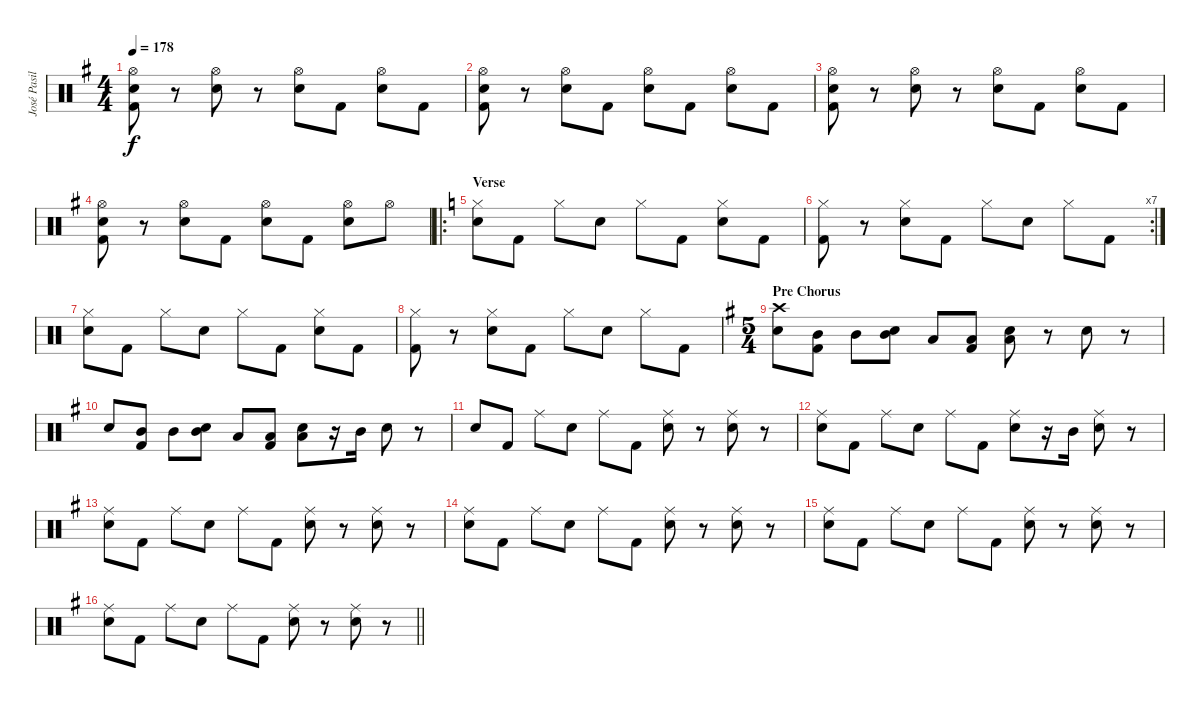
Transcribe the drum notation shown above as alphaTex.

\track ("José Pasillas [Drums]" "José Pasil") {instrument percussion}
\staff {score}
\articulation defaults
\ts (4 4)
\tempo 178
\clef neutral
\ks g
("Kick (hit) 2" "Electric Snare (hit)" "Hi-Hat (open)").8{dy f} r.8 ("Electric Snare (hit)" "Hi-Hat (open)").8 r.8 ("Electric Snare (hit)" "Hi-Hat (open)").8 "Kick (hit) 2".8 ("Electric Snare (hit)" "Hi-Hat (open)").8 "Kick (hit) 2".8 |
("Kick (hit) 2" "Electric Snare (hit)" "Hi-Hat (open)").8 r.8 ("Electric Snare (hit)" "Hi-Hat (open)").8 "Kick (hit) 2".8 ("Electric Snare (hit)" "Hi-Hat (open)").8 "Kick (hit) 2".8 ("Electric Snare (hit)" "Hi-Hat (open)").8 "Kick (hit) 2".8 |
("Kick (hit) 2" "Electric Snare (hit)" "Hi-Hat (open)").8 r.8 ("Electric Snare (hit)" "Hi-Hat (open)").8 r.8 ("Electric Snare (hit)" "Hi-Hat (open)").8 "Kick (hit) 2".8 ("Electric Snare (hit)" "Hi-Hat (open)").8 "Kick (hit) 2".8 |
("Kick (hit) 2" "Electric Snare (hit)" "Hi-Hat (open)").8 r.8 ("Electric Snare (hit)" "Hi-Hat (open)").8 "Kick (hit) 2".8 ("Electric Snare (hit)" "Hi-Hat (open)").8 "Kick (hit) 2".8 ("Electric Snare (hit)" "Hi-Hat (open)").8 "Hi-Hat (open)".8 |
\ro
\section ("" "Verse")
\ks c
("Electric Snare (hit)" "Hi-Hat (closed)").8 "Kick (hit) 2".8 "Hi-Hat (closed)".8 "Electric Snare (hit)".8 "Hi-Hat (closed)".8 "Kick (hit) 2".8 ("Electric Snare (hit)" "Hi-Hat (closed)").8 "Kick (hit) 2".8 |
\rc 7
("Kick (hit) 2" "Hi-Hat (closed)").8 r.8 ("Electric Snare (hit)" "Hi-Hat (closed)").8 "Kick (hit) 2".8 "Hi-Hat (closed)".8 "Electric Snare (hit)".8 "Hi-Hat (closed)".8 "Kick (hit) 2".8 |
("Electric Snare (hit)" "Hi-Hat (closed)").8 "Kick (hit) 2".8 "Hi-Hat (closed)".8 "Electric Snare (hit)".8 "Hi-Hat (closed)".8 "Kick (hit) 2".8 ("Electric Snare (hit)" "Hi-Hat (closed)").8 "Kick (hit) 2".8 |
("Kick (hit) 2" "Hi-Hat (closed)").8 r.8 ("Electric Snare (hit)" "Hi-Hat (closed)").8 "Kick (hit) 2".8 "Hi-Hat (closed)".8 "Electric Snare (hit)".8 "Hi-Hat (closed)".8 "Kick (hit) 2".8 |
\ts (5 4)
\section ("" "Pre Chorus")
\ks g
("Electric Snare (hit)" "Crash high (hit)").8 ("Kick (hit) 2" "Mid Tom (hit)").8 "Mid Tom (hit)".8 ("Electric Snare (hit)" "Mid Tom (hit)").8 "Low Tom (hit)".8 ("Kick (hit) 2" "Low Tom (hit)").8 ("Electric Snare (hit)" "Low Tom (hit)").8 r.8 "Electric Snare (hit)".8 r.8 |
"Electric Snare (hit)".8 ("Kick (hit) 2" "Mid Tom (hit)").8 "Mid Tom (hit)".8 ("Electric Snare (hit)" "Mid Tom (hit)").8 "Low Tom (hit)".8 ("Kick (hit) 2" "Low Tom (hit)").8 ("Electric Snare (hit)" "Low Tom (hit)").8 r.16 "Mid Tom (hit)".16 "Electric Snare (hit)".8 r.8 |
"Electric Snare (hit)".8 "Kick (hit) 2".8 "Ride (middle)".8 "Electric Snare (hit)".8 "Ride (middle)".8 "Kick (hit) 2".8 ("Electric Snare (hit)" "Ride (middle)").8 r.8 ("Electric Snare (hit)" "Ride (middle)").8 r.8 |
("Electric Snare (hit)" "Ride (middle)").8 "Kick (hit) 2".8 "Ride (middle)".8 "Electric Snare (hit)".8 "Ride (middle)".8 "Kick (hit) 2".8 ("Electric Snare (hit)" "Ride (middle)").8 r.16 "Mid Tom (hit)".16 ("Electric Snare (hit)" "Ride (middle)").8 r.8 |
("Electric Snare (hit)" "Ride (middle)").8 "Kick (hit) 2".8 "Ride (middle)".8 "Electric Snare (hit)".8 "Ride (middle)".8 "Kick (hit) 2".8 ("Electric Snare (hit)" "Ride (middle)").8 r.8 ("Electric Snare (hit)" "Ride (middle)").8 r.8 |
("Electric Snare (hit)" "Ride (middle)").8 "Kick (hit) 2".8 "Ride (middle)".8 "Electric Snare (hit)".8 "Ride (middle)".8 "Kick (hit) 2".8 ("Electric Snare (hit)" "Ride (middle)").8 r.8 ("Electric Snare (hit)" "Ride (middle)").8 r.8 |
("Electric Snare (hit)" "Ride (middle)").8 "Kick (hit) 2".8 "Ride (middle)".8 "Electric Snare (hit)".8 "Ride (middle)".8 "Kick (hit) 2".8 ("Electric Snare (hit)" "Ride (middle)").8 r.8 ("Electric Snare (hit)" "Ride (middle)").8 r.8 |
\barLineRight lightlight
("Electric Snare (hit)" "Ride (middle)").8 "Kick (hit) 2".8 "Ride (middle)".8 "Electric Snare (hit)".8 "Ride (middle)".8 "Kick (hit) 2".8 ("Electric Snare (hit)" "Ride (middle)").8 r.8 ("Electric Snare (hit)" "Ride (middle)").8 r.8
